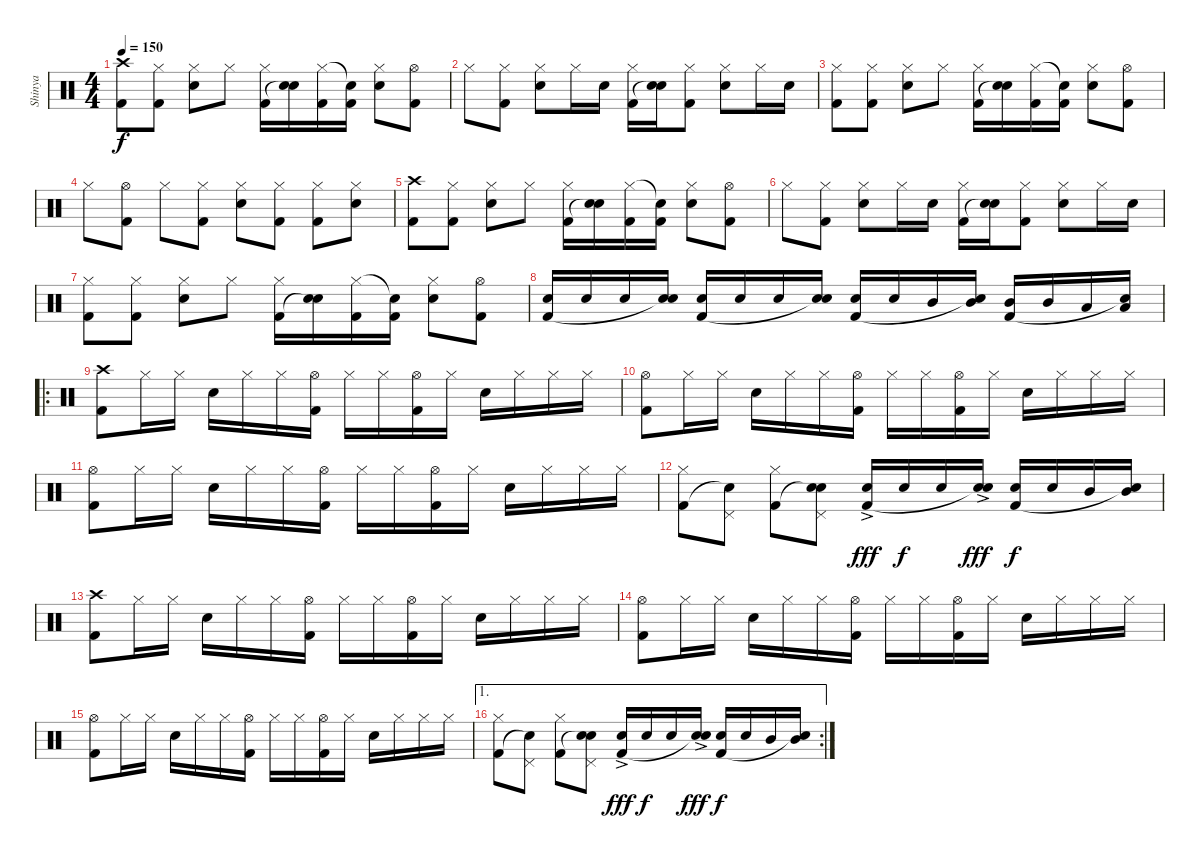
\track ("Shinya" "Shinya") {instrument percussion}
\staff {score}
\articulation defaults
\ts (4 4)
\tempo 150
\clef neutral
\ks c
("Crash high (hit)" "Kick (hit) 2").8{dy f} ("Hi-Hat (closed)" "Kick (hit) 2").8 ("Hi-Hat (closed)" "Electric Snare (hit)").8 "Hi-Hat (closed)".8 ("Hi-Hat (closed)" "Kick (hit) 2").16 ("Electric Snare (hit)" "Snare (hit)"{t}).16 ("Hi-Hat (closed)" "Kick (hit) 2").16 ("Snare (hit)"{t} "Kick (hit) 2").16 ("Hi-Hat (closed)" "Electric Snare (hit)").8 ("Hi-Hat (open)" "Kick (hit) 2").8 |
"Hi-Hat (closed)".8 ("Hi-Hat (closed)" "Kick (hit) 2").8 ("Hi-Hat (closed)" "Electric Snare (hit)").8 "Hi-Hat (closed)".16 "Electric Snare (hit)".16 ("Hi-Hat (closed)" "Kick (hit) 2").16 ("Electric Snare (hit)" "Snare (hit)"{t}).16 ("Hi-Hat (closed)" "Kick (hit) 2").8 ("Hi-Hat (closed)" "Electric Snare (hit)").8 "Hi-Hat (closed)".16 "Electric Snare (hit)".16 |
("Hi-Hat (closed)" "Kick (hit) 2").8 ("Hi-Hat (closed)" "Kick (hit) 2").8 ("Hi-Hat (closed)" "Electric Snare (hit)").8 "Hi-Hat (closed)".8 ("Hi-Hat (closed)" "Kick (hit) 2").16 ("Electric Snare (hit)" "Snare (hit)"{t}).16 ("Hi-Hat (closed)" "Kick (hit) 2").16 ("Snare (hit)"{t} "Kick (hit) 2").16 ("Hi-Hat (closed)" "Electric Snare (hit)").8 ("Hi-Hat (open)" "Kick (hit) 2").8 |
"Hi-Hat (closed)".8 ("Hi-Hat (open)" "Kick (hit) 2").8 "Hi-Hat (closed)".8 ("Hi-Hat (closed)" "Kick (hit) 2").8 ("Hi-Hat (closed)" "Electric Snare (hit)").8 ("Hi-Hat (closed)" "Kick (hit) 2").8 ("Hi-Hat (closed)" "Kick (hit) 2").8 ("Hi-Hat (closed)" "Electric Snare (hit)").8 |
("Crash high (hit)" "Kick (hit) 2").8 ("Hi-Hat (closed)" "Kick (hit) 2").8 ("Hi-Hat (closed)" "Electric Snare (hit)").8 "Hi-Hat (closed)".8 ("Hi-Hat (closed)" "Kick (hit) 2").16 ("Electric Snare (hit)" "Snare (hit)"{t}).16 ("Hi-Hat (closed)" "Kick (hit) 2").16 ("Snare (hit)"{t} "Kick (hit) 2").16 ("Hi-Hat (closed)" "Electric Snare (hit)").8 ("Hi-Hat (open)" "Kick (hit) 2").8 |
"Hi-Hat (closed)".8 ("Hi-Hat (closed)" "Kick (hit) 2").8 ("Hi-Hat (closed)" "Electric Snare (hit)").8 "Hi-Hat (closed)".16 "Electric Snare (hit)".16 ("Hi-Hat (closed)" "Kick (hit) 2").16 ("Electric Snare (hit)" "Snare (hit)"{t}).16 ("Hi-Hat (closed)" "Kick (hit) 2").8 ("Hi-Hat (closed)" "Electric Snare (hit)").8 "Hi-Hat (closed)".16 "Electric Snare (hit)".16 |
("Hi-Hat (closed)" "Kick (hit) 2").8 ("Hi-Hat (closed)" "Kick (hit) 2").8 ("Hi-Hat (closed)" "Electric Snare (hit)").8 "Hi-Hat (closed)".8 ("Hi-Hat (closed)" "Kick (hit) 2").16 ("Electric Snare (hit)" "Snare (hit)"{t}).16 ("Hi-Hat (closed)" "Kick (hit) 2").16 ("Snare (hit)"{t} "Kick (hit) 2").16 ("Hi-Hat (closed)" "Electric Snare (hit)").8 ("Hi-Hat (open)" "Kick (hit) 2").8 |
("Electric Snare (hit)" "Kick (hit) 2").16 "Electric Snare (hit)".16 "Electric Snare (hit)".16 ("Electric Snare (hit)" "Snare (hit)"{t}).16 ("Electric Snare (hit)" "Kick (hit) 2").16 "Electric Snare (hit)".16 "Electric Snare (hit)".16 ("Electric Snare (hit)" "Snare (hit)"{t}).16 ("Electric Snare (hit)" "Kick (hit) 2").16 "Electric Snare (hit)".16 "Mid Tom (hit)".16 ("Mid Tom (hit)" "Snare (hit)"{t}).16 ("Mid Tom (hit)" "Kick (hit) 2").16 "Mid Tom (hit)".16 "Low Tom (hit)".16 ("Low Tom (hit)" "Snare (hit)"{t}).16 |
\ro
("Crash high (hit)" "Kick (hit) 2").8 "Hi-Hat (closed)".16 "Hi-Hat (closed)".16 "Electric Snare (hit)".16 "Hi-Hat (closed)".16 "Hi-Hat (closed)".16 ("Hi-Hat (open)" "Kick (hit) 2").16 "Hi-Hat (closed)".16 "Hi-Hat (closed)".16 ("Hi-Hat (open)" "Kick (hit) 2").16 "Hi-Hat (closed)".16 "Electric Snare (hit)".16 "Hi-Hat (closed)".16 "Hi-Hat (closed)".16 "Hi-Hat (closed)".16 |
("Hi-Hat (open)" "Kick (hit) 2").8 "Hi-Hat (closed)".16 "Hi-Hat (closed)".16 "Electric Snare (hit)".16 "Hi-Hat (closed)".16 "Hi-Hat (closed)".16 ("Hi-Hat (open)" "Kick (hit) 2").16 "Hi-Hat (closed)".16 "Hi-Hat (closed)".16 ("Hi-Hat (open)" "Kick (hit) 2").16 "Hi-Hat (closed)".16 "Electric Snare (hit)".16 "Hi-Hat (closed)".16 "Hi-Hat (closed)".16 "Hi-Hat (closed)".16 |
("Hi-Hat (open)" "Kick (hit) 2").8 "Hi-Hat (closed)".16 "Hi-Hat (closed)".16 "Electric Snare (hit)".16 "Hi-Hat (closed)".16 "Hi-Hat (closed)".16 ("Hi-Hat (open)" "Kick (hit) 2").16 "Hi-Hat (closed)".16 "Hi-Hat (closed)".16 ("Hi-Hat (open)" "Kick (hit) 2").16 "Hi-Hat (closed)".16 "Electric Snare (hit)".16 "Hi-Hat (closed)".16 "Hi-Hat (closed)".16 "Hi-Hat (closed)".16 |
("Hi-Hat (closed)" "Kick (hit) 2").8 ("Pedal Hi-Hat (hit)" "Snare (hit)"{t}).8 ("Hi-Hat (closed)" "Kick (hit) 2").8 ("Pedal Hi-Hat (hit)" "Snare (hit)"{t} "Electric Snare (hit)").8 ("Electric Snare (hit)"{ac} "Kick (hit) 2").16{dy fff} "Electric Snare (hit)".16{dy f} "Electric Snare (hit)".16 ("Electric Snare (hit)"{ac} "Snare (hit)"{t}).16{dy fff} ("Electric Snare (hit)" "Kick (hit) 2").16{dy f} "Electric Snare (hit)".16 "Mid Tom (hit)".16 ("Mid Tom (hit)" "Snare (hit)"{t}).16 |
("Crash high (hit)" "Kick (hit) 2").8 "Hi-Hat (closed)".16 "Hi-Hat (closed)".16 "Electric Snare (hit)".16 "Hi-Hat (closed)".16 "Hi-Hat (closed)".16 ("Hi-Hat (open)" "Kick (hit) 2").16 "Hi-Hat (closed)".16 "Hi-Hat (closed)".16 ("Hi-Hat (open)" "Kick (hit) 2").16 "Hi-Hat (closed)".16 "Electric Snare (hit)".16 "Hi-Hat (closed)".16 "Hi-Hat (closed)".16 "Hi-Hat (closed)".16 |
("Hi-Hat (open)" "Kick (hit) 2").8 "Hi-Hat (closed)".16 "Hi-Hat (closed)".16 "Electric Snare (hit)".16 "Hi-Hat (closed)".16 "Hi-Hat (closed)".16 ("Hi-Hat (open)" "Kick (hit) 2").16 "Hi-Hat (closed)".16 "Hi-Hat (closed)".16 ("Hi-Hat (open)" "Kick (hit) 2").16 "Hi-Hat (closed)".16 "Electric Snare (hit)".16 "Hi-Hat (closed)".16 "Hi-Hat (closed)".16 "Hi-Hat (closed)".16 |
("Hi-Hat (open)" "Kick (hit) 2").8 "Hi-Hat (closed)".16 "Hi-Hat (closed)".16 "Electric Snare (hit)".16 "Hi-Hat (closed)".16 "Hi-Hat (closed)".16 ("Hi-Hat (open)" "Kick (hit) 2").16 "Hi-Hat (closed)".16 "Hi-Hat (closed)".16 ("Hi-Hat (open)" "Kick (hit) 2").16 "Hi-Hat (closed)".16 "Electric Snare (hit)".16 "Hi-Hat (closed)".16 "Hi-Hat (closed)".16 "Hi-Hat (closed)".16 |
\ae 1
\rc 2
("Hi-Hat (closed)" "Kick (hit) 2").8 ("Pedal Hi-Hat (hit)" "Snare (hit)"{t}).8 ("Hi-Hat (closed)" "Kick (hit) 2").8 ("Pedal Hi-Hat (hit)" "Snare (hit)"{t} "Electric Snare (hit)").8 ("Electric Snare (hit)"{ac} "Kick (hit) 2").16{dy fff} "Electric Snare (hit)".16{dy f} "Electric Snare (hit)".16 ("Electric Snare (hit)"{ac} "Snare (hit)"{t}).16{dy fff} ("Electric Snare (hit)" "Kick (hit) 2").16{dy f} "Electric Snare (hit)".16 "Mid Tom (hit)".16 ("Mid Tom (hit)" "Snare (hit)"{t}).16
